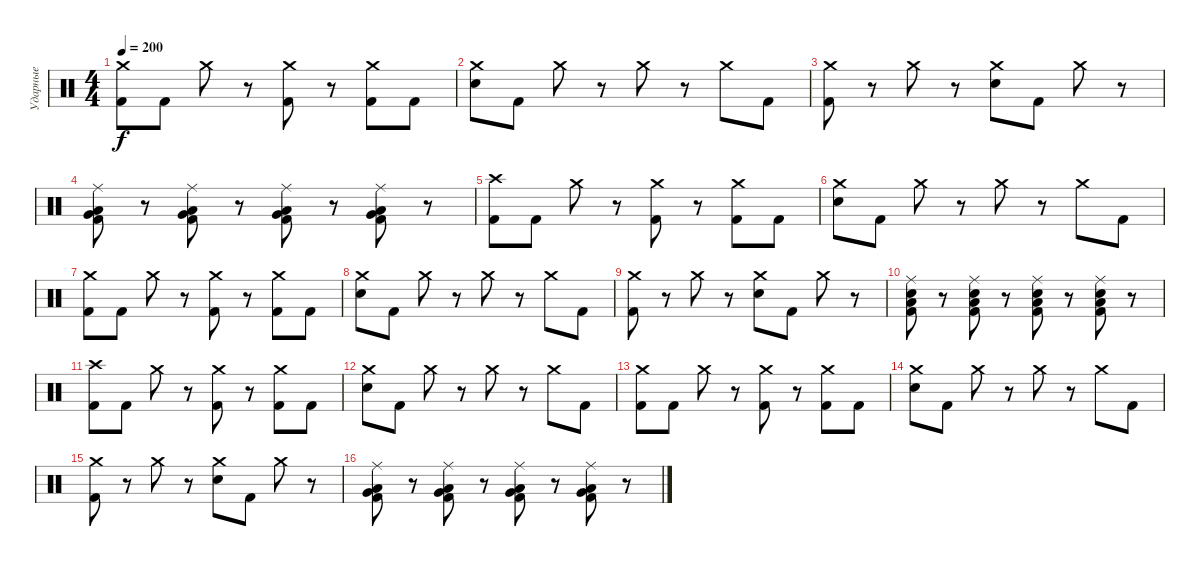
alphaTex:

\track ("Ударные" "Ударные") {instrument percussion}
\staff {score}
\articulation defaults
\ts (4 4)
\tempo 200
\clef neutral
\ks c
("Crash medium (hit)" "Kick (hit) 2").8{dy f} "Kick (hit) 2".8 "Crash medium (hit)".8 r.8 ("Crash medium (hit)" "Kick (hit) 2").8 r.8 ("Crash medium (hit)" "Kick (hit) 2").8 "Kick (hit) 2".8 |
("Crash medium (hit)" "Electric Snare (hit)").8 "Kick (hit) 2".8 "Crash medium (hit)".8 r.8 "Crash medium (hit)".8 r.8 "Crash medium (hit)".8 "Kick (hit) 2".8 |
("Crash medium (hit)" "Kick (hit) 2").8 r.8 "Crash medium (hit)".8 r.8 ("Crash medium (hit)" "Electric Snare (hit)").8 "Kick (hit) 2".8 "Crash medium (hit)".8 r.8 |
("Low Floor Tom (hit)" "Very Low Tom (hit)" "Kick (hit) 2" "Ride (middle)").8 r.8 ("Low Floor Tom (hit)" "Very Low Tom (hit)" "Kick (hit) 2" "Ride (middle)").8 r.8 ("Low Floor Tom (hit)" "Very Low Tom (hit)" "Kick (hit) 2" "Ride (middle)").8 r.8 ("Low Floor Tom (hit)" "Very Low Tom (hit)" "Kick (hit) 2" "Ride (middle)").8 r.8 |
("Crash high (hit)" "Kick (hit) 2").8 "Kick (hit) 2".8 "Crash medium (hit)".8 r.8 ("Crash medium (hit)" "Kick (hit) 2").8 r.8 ("Crash medium (hit)" "Kick (hit) 2").8 "Kick (hit) 2".8 |
("Crash medium (hit)" "Electric Snare (hit)").8 "Kick (hit) 2".8 "Crash medium (hit)".8 r.8 "Crash medium (hit)".8 r.8 "Crash medium (hit)".8 "Kick (hit) 2".8 |
("Crash medium (hit)" "Kick (hit) 2").8 "Kick (hit) 2".8 "Crash medium (hit)".8 r.8 ("Crash medium (hit)" "Kick (hit) 2").8 r.8 ("Crash medium (hit)" "Kick (hit) 2").8 "Kick (hit) 2".8 |
("Crash medium (hit)" "Electric Snare (hit)").8 "Kick (hit) 2".8 "Crash medium (hit)".8 r.8 "Crash medium (hit)".8 r.8 "Crash medium (hit)".8 "Kick (hit) 2".8 |
("Crash medium (hit)" "Kick (hit) 2").8 r.8 "Crash medium (hit)".8 r.8 ("Crash medium (hit)" "Electric Snare (hit)").8 "Kick (hit) 2".8 "Crash medium (hit)".8 r.8 |
("Low Floor Tom (hit)" "Electric Snare (hit)" "Kick (hit) 2" "Ride (middle)").8 r.8 ("Low Floor Tom (hit)" "Electric Snare (hit)" "Kick (hit) 2" "Ride (middle)").8 r.8 ("Low Floor Tom (hit)" "Electric Snare (hit)" "Kick (hit) 2" "Ride (middle)").8 r.8 ("Low Floor Tom (hit)" "Electric Snare (hit)" "Kick (hit) 2" "Ride (middle)").8 r.8 |
("Crash high (hit)" "Kick (hit) 2").8 "Kick (hit) 2".8 "Crash medium (hit)".8 r.8 ("Crash medium (hit)" "Kick (hit) 2").8 r.8 ("Crash medium (hit)" "Kick (hit) 2").8 "Kick (hit) 2".8 |
("Crash medium (hit)" "Electric Snare (hit)").8 "Kick (hit) 2".8 "Crash medium (hit)".8 r.8 "Crash medium (hit)".8 r.8 "Crash medium (hit)".8 "Kick (hit) 2".8 |
("Crash medium (hit)" "Kick (hit) 2").8 "Kick (hit) 2".8 "Crash medium (hit)".8 r.8 ("Crash medium (hit)" "Kick (hit) 2").8 r.8 ("Crash medium (hit)" "Kick (hit) 2").8 "Kick (hit) 2".8 |
("Crash medium (hit)" "Electric Snare (hit)").8 "Kick (hit) 2".8 "Crash medium (hit)".8 r.8 "Crash medium (hit)".8 r.8 "Crash medium (hit)".8 "Kick (hit) 2".8 |
("Crash medium (hit)" "Kick (hit) 2").8 r.8 "Crash medium (hit)".8 r.8 ("Crash medium (hit)" "Electric Snare (hit)").8 "Kick (hit) 2".8 "Crash medium (hit)".8 r.8 |
("Low Floor Tom (hit)" "Very Low Tom (hit)" "Kick (hit) 2" "Ride (middle)").8 r.8 ("Low Floor Tom (hit)" "Very Low Tom (hit)" "Kick (hit) 2" "Ride (middle)").8 r.8 ("Low Floor Tom (hit)" "Very Low Tom (hit)" "Kick (hit) 2" "Ride (middle)").8 r.8 ("Low Floor Tom (hit)" "Very Low Tom (hit)" "Kick (hit) 2" "Ride (middle)").8 r.8
